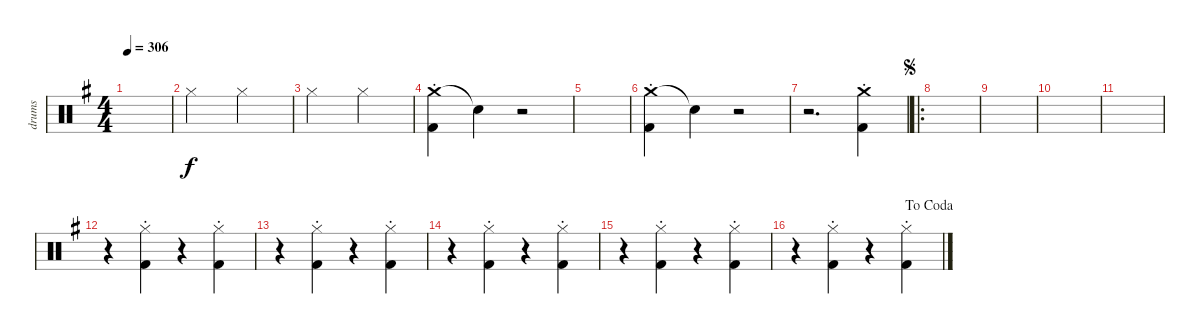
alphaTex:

\track ("drums" "drums") {instrument percussion}
\staff {score}
\articulation defaults
\ts (4 4)
\tempo 306
\clef neutral
\ks g
|
"Hi-Hat (closed)".2 "Hi-Hat (closed)".2 |
"Hi-Hat (closed)".2 "Hi-Hat (closed)".2 |
("Crash medium (hit)"{st} "Kick (hit) 2").4 "Snare (hit)"{t}.4 r.2 |
|
("Crash medium (hit)"{st} "Kick (hit) 2").4 "Snare (hit)"{t}.4 r.2 |
r.2{d} ("Crash medium (hit)"{st} "Kick (hit) 2").4 |
\ro
\jump segno
|
|
|
|
r.4 ("Hi-Hat (closed)"{st} "Kick (hit) 2").4 r.4 ("Hi-Hat (closed)"{st} "Kick (hit) 2").4 |
r.4 ("Hi-Hat (closed)"{st} "Kick (hit) 2").4 r.4 ("Hi-Hat (closed)"{st} "Kick (hit) 2").4 |
r.4 ("Hi-Hat (closed)"{st} "Kick (hit) 2").4 r.4 ("Hi-Hat (closed)"{st} "Kick (hit) 2").4 |
r.4 ("Hi-Hat (closed)"{st} "Kick (hit) 2").4 r.4 ("Hi-Hat (closed)"{st} "Kick (hit) 2").4 |
\jump dacoda
r.4 ("Hi-Hat (closed)"{st} "Kick (hit) 2").4 r.4 ("Hi-Hat (closed)"{st} "Kick (hit) 2").4
